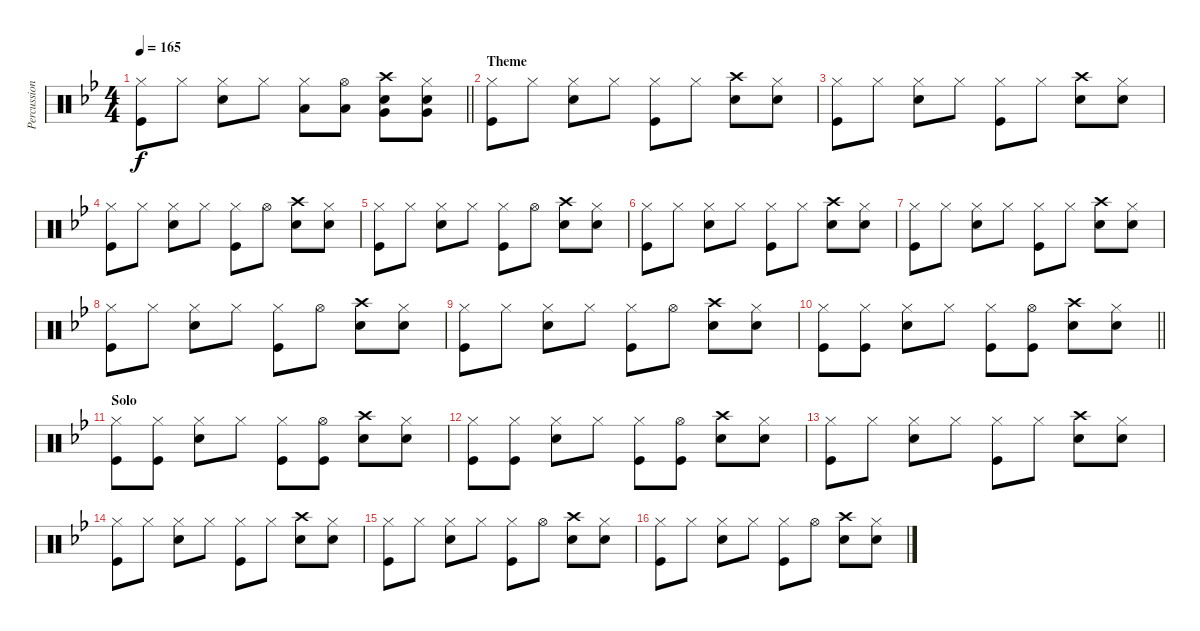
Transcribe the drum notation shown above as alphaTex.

\track ("Percussions" "Percussion") {instrument percussion}
\staff {score}
\articulation defaults
\ts (4 4)
\tempo 165
\clef neutral
\barLineRight lightlight
\ks bb
("Hi-Hat (closed)" "Kick (hit)").8{dy f} "Hi-Hat (closed)".8 ("Hi-Hat (closed)" "Snare (hit) 2").8 "Hi-Hat (closed)".8 ("Hi-Hat (closed)" "Low Floor Tom (hit)").8 ("Hi-Hat (open)" "Low Floor Tom (hit)").8 ("Crash high (hit)" "Snare (hit) 2" "Very Low Tom (hit)").8 ("Hi-Hat (closed)" "Snare (hit) 2" "Very Low Tom (hit)").8 |
\section ("" "Theme")
("Hi-Hat (closed)" "Kick (hit)").8 "Hi-Hat (closed)".8 ("Hi-Hat (closed)" "Snare (hit) 2").8 "Hi-Hat (closed)".8 ("Hi-Hat (closed)" "Kick (hit)").8 "Hi-Hat (closed)".8 ("Crash high (hit)" "Snare (hit) 2").8 ("Hi-Hat (closed)" "Snare (hit) 2").8 |
("Hi-Hat (closed)" "Kick (hit)").8 "Hi-Hat (closed)".8 ("Hi-Hat (closed)" "Snare (hit) 2").8 "Hi-Hat (closed)".8 ("Hi-Hat (closed)" "Kick (hit)").8 "Hi-Hat (closed)".8 ("Crash high (hit)" "Snare (hit) 2").8 ("Hi-Hat (closed)" "Snare (hit) 2").8 |
("Hi-Hat (closed)" "Kick (hit)").8 "Hi-Hat (closed)".8 ("Hi-Hat (closed)" "Snare (hit) 2").8 "Hi-Hat (closed)".8 ("Hi-Hat (closed)" "Kick (hit)").8 "Hi-Hat (open)".8 ("Crash high (hit)" "Snare (hit) 2").8 ("Hi-Hat (closed)" "Snare (hit) 2").8 |
("Hi-Hat (closed)" "Kick (hit)").8 "Hi-Hat (closed)".8 ("Hi-Hat (closed)" "Snare (hit) 2").8 "Hi-Hat (closed)".8 ("Hi-Hat (closed)" "Kick (hit)").8 "Hi-Hat (open)".8 ("Crash high (hit)" "Snare (hit) 2").8 ("Hi-Hat (closed)" "Snare (hit) 2").8 |
("Hi-Hat (closed)" "Kick (hit)").8 "Hi-Hat (closed)".8 ("Hi-Hat (closed)" "Snare (hit) 2").8 "Hi-Hat (closed)".8 ("Hi-Hat (closed)" "Kick (hit)").8 "Hi-Hat (closed)".8 ("Crash high (hit)" "Snare (hit) 2").8 ("Hi-Hat (closed)" "Snare (hit) 2").8 |
("Hi-Hat (closed)" "Kick (hit)").8 "Hi-Hat (closed)".8 ("Hi-Hat (closed)" "Snare (hit) 2").8 "Hi-Hat (closed)".8 ("Hi-Hat (closed)" "Kick (hit)").8 "Hi-Hat (closed)".8 ("Crash high (hit)" "Snare (hit) 2").8 ("Hi-Hat (closed)" "Snare (hit) 2").8 |
("Hi-Hat (closed)" "Kick (hit)").8 "Hi-Hat (closed)".8 ("Hi-Hat (closed)" "Snare (hit) 2").8 "Hi-Hat (closed)".8 ("Hi-Hat (closed)" "Kick (hit)").8 "Hi-Hat (open)".8 ("Crash high (hit)" "Snare (hit) 2").8 ("Hi-Hat (closed)" "Snare (hit) 2").8 |
("Hi-Hat (closed)" "Kick (hit)").8 "Hi-Hat (closed)".8 ("Hi-Hat (closed)" "Snare (hit) 2").8 "Hi-Hat (closed)".8 ("Hi-Hat (closed)" "Kick (hit)").8 "Hi-Hat (open)".8 ("Crash high (hit)" "Snare (hit) 2").8 ("Hi-Hat (closed)" "Snare (hit) 2").8 |
\barLineRight lightlight
("Hi-Hat (closed)" "Kick (hit)").8 ("Hi-Hat (closed)" "Kick (hit)").8 ("Hi-Hat (closed)" "Snare (hit) 2").8 "Hi-Hat (closed)".8 ("Hi-Hat (closed)" "Kick (hit)").8 ("Hi-Hat (open)" "Kick (hit)").8 ("Crash high (hit)" "Snare (hit) 2").8 ("Hi-Hat (closed)" "Snare (hit) 2").8 |
\section ("" "Solo")
("Hi-Hat (closed)" "Kick (hit)").8 ("Hi-Hat (closed)" "Kick (hit)").8 ("Hi-Hat (closed)" "Snare (hit) 2").8 "Hi-Hat (closed)".8 ("Hi-Hat (closed)" "Kick (hit)").8 ("Hi-Hat (open)" "Kick (hit)").8 ("Crash high (hit)" "Snare (hit) 2").8 ("Hi-Hat (closed)" "Snare (hit) 2").8 |
("Hi-Hat (closed)" "Kick (hit)").8 ("Hi-Hat (closed)" "Kick (hit)").8 ("Hi-Hat (closed)" "Snare (hit) 2").8 "Hi-Hat (closed)".8 ("Hi-Hat (closed)" "Kick (hit)").8 ("Hi-Hat (open)" "Kick (hit)").8 ("Crash high (hit)" "Snare (hit) 2").8 ("Hi-Hat (closed)" "Snare (hit) 2").8 |
("Hi-Hat (closed)" "Kick (hit)").8 "Hi-Hat (closed)".8 ("Hi-Hat (closed)" "Snare (hit) 2").8 "Hi-Hat (closed)".8 ("Hi-Hat (closed)" "Kick (hit)").8 "Hi-Hat (closed)".8 ("Crash high (hit)" "Snare (hit) 2").8 ("Hi-Hat (closed)" "Snare (hit) 2").8 |
("Hi-Hat (closed)" "Kick (hit)").8 "Hi-Hat (closed)".8 ("Hi-Hat (closed)" "Snare (hit) 2").8 "Hi-Hat (closed)".8 ("Hi-Hat (closed)" "Kick (hit)").8 "Hi-Hat (closed)".8 ("Crash high (hit)" "Snare (hit) 2").8 ("Hi-Hat (closed)" "Snare (hit) 2").8 |
("Hi-Hat (closed)" "Kick (hit)").8 "Hi-Hat (closed)".8 ("Hi-Hat (closed)" "Snare (hit) 2").8 "Hi-Hat (closed)".8 ("Hi-Hat (closed)" "Kick (hit)").8 "Hi-Hat (open)".8 ("Crash high (hit)" "Snare (hit) 2").8 ("Hi-Hat (closed)" "Snare (hit) 2").8 |
("Hi-Hat (closed)" "Kick (hit)").8 "Hi-Hat (closed)".8 ("Hi-Hat (closed)" "Snare (hit) 2").8 "Hi-Hat (closed)".8 ("Hi-Hat (closed)" "Kick (hit)").8 "Hi-Hat (open)".8 ("Crash high (hit)" "Snare (hit) 2").8 ("Hi-Hat (closed)" "Snare (hit) 2").8
